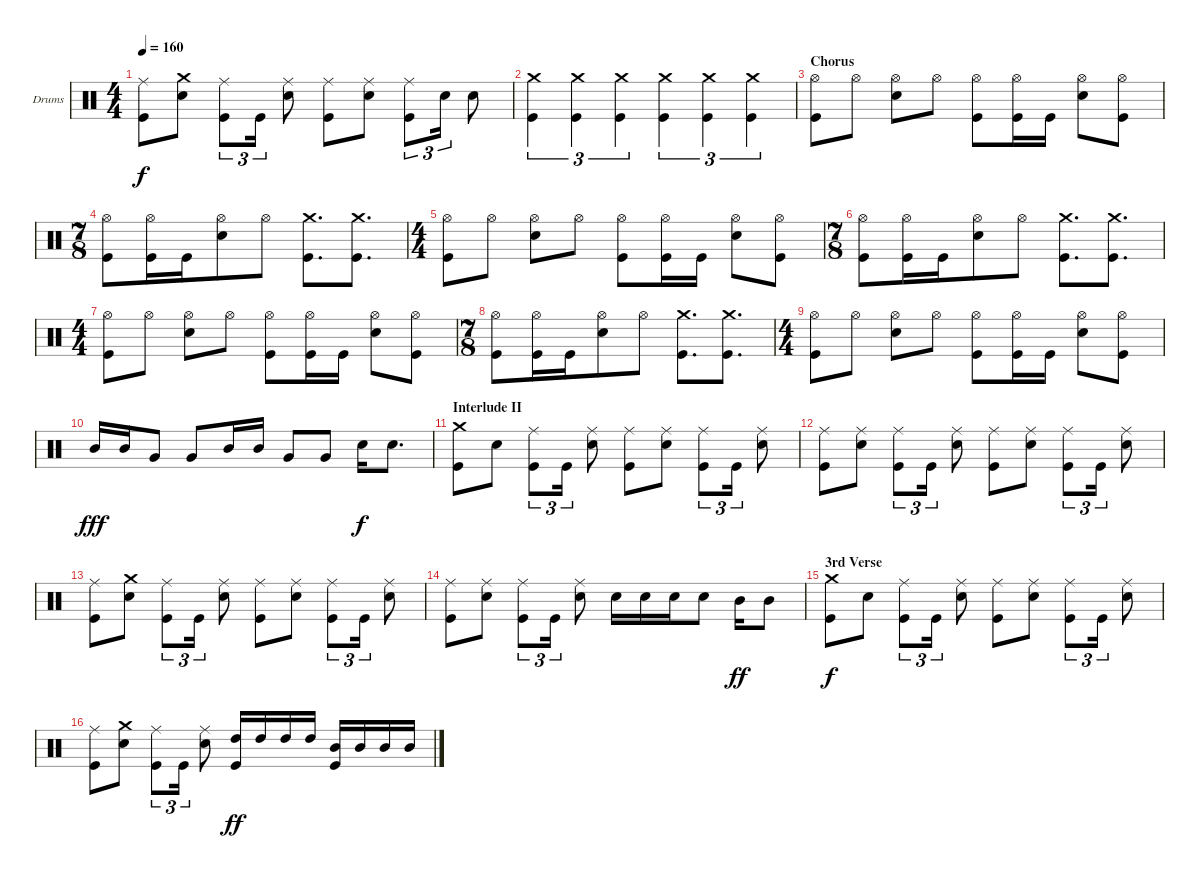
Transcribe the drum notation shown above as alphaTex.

\bracketExtendMode groupsimilarinstruments
\firstSystemTrackNameOrientation horizontal
\otherSystemsTrackNameOrientation horizontal
\track ("Drums" "Drums") {instrument percussion}
\staff {score}
\articulation defaults
\ts (4 4)
\tempo 160
\clef neutral
\ks c
("Ride (middle)" "Kick (hit)").8{dy f} ("Crash medium (hit)" "Snare (hit) 2").8 ("Kick (hit)" "Ride (middle)").8{tu (3 2)} "Kick (hit)".16{tu (3 2)} ("Ride (middle)" "Snare (hit) 2").8 ("Ride (middle)" "Kick (hit)").8 ("Ride (middle)" "Snare (hit) 2").8 ("Ride (middle)" "Kick (hit)").8{tu (3 2)} "Snare (hit) 2".16{tu (3 2)} "Snare (hit) 2".8 |
("Crash medium (hit)" "Kick (hit)").4{tu (3 2)} ("Crash medium (hit)" "Kick (hit)").4{tu (3 2)} ("Crash medium (hit)" "Kick (hit)").4{tu (3 2)} ("Crash medium (hit)" "Kick (hit)").4{tu (3 2)} ("Crash medium (hit)" "Kick (hit)").4{tu (3 2)} ("Crash medium (hit)" "Kick (hit)").4{tu (3 2)} |
\section ("" "Chorus")
("Hi-Hat (open)" "Kick (hit)").8 "Hi-Hat (open)".8 ("Hi-Hat (open)" "Snare (hit) 2").8 "Hi-Hat (open)".8 ("Hi-Hat (open)" "Kick (hit)").8 ("Hi-Hat (open)" "Kick (hit)").16 "Kick (hit)".16 ("Hi-Hat (open)" "Snare (hit) 2").8 ("Hi-Hat (open)" "Kick (hit)").8 |
\ts (7 8)
("Hi-Hat (open)" "Kick (hit)").8 ("Hi-Hat (open)" "Kick (hit)").16 "Kick (hit)".16 ("Hi-Hat (open)" "Snare (hit) 2").8 "Hi-Hat (open)".8 ("Crash medium (hit)" "Kick (hit)").8{d} ("Crash medium (hit)" "Kick (hit)").8{d} |
\ts (4 4)
("Hi-Hat (open)" "Kick (hit)").8 "Hi-Hat (open)".8 ("Hi-Hat (open)" "Snare (hit) 2").8 "Hi-Hat (open)".8 ("Hi-Hat (open)" "Kick (hit)").8 ("Hi-Hat (open)" "Kick (hit)").16 "Kick (hit)".16 ("Hi-Hat (open)" "Snare (hit) 2").8 ("Hi-Hat (open)" "Kick (hit)").8 |
\ts (7 8)
("Hi-Hat (open)" "Kick (hit)").8 ("Hi-Hat (open)" "Kick (hit)").16 "Kick (hit)".16 ("Hi-Hat (open)" "Snare (hit) 2").8 "Hi-Hat (open)".8 ("Crash medium (hit)" "Kick (hit)").8{d} ("Crash medium (hit)" "Kick (hit)").8{d} |
\ts (4 4)
("Hi-Hat (open)" "Kick (hit)").8 "Hi-Hat (open)".8 ("Hi-Hat (open)" "Snare (hit) 2").8 "Hi-Hat (open)".8 ("Hi-Hat (open)" "Kick (hit)").8 ("Hi-Hat (open)" "Kick (hit)").16 "Kick (hit)".16 ("Hi-Hat (open)" "Snare (hit) 2").8 ("Hi-Hat (open)" "Kick (hit)").8 |
\ts (7 8)
("Hi-Hat (open)" "Kick (hit)").8 ("Hi-Hat (open)" "Kick (hit)").16 "Kick (hit)".16 ("Hi-Hat (open)" "Snare (hit) 2").8 "Hi-Hat (open)".8 ("Crash medium (hit)" "Kick (hit)").8{d} ("Crash medium (hit)" "Kick (hit)").8{d} |
\ts (4 4)
("Hi-Hat (open)" "Kick (hit)").8 "Hi-Hat (open)".8 ("Hi-Hat (open)" "Snare (hit) 2").8 "Hi-Hat (open)".8 ("Hi-Hat (open)" "Kick (hit)").8 ("Hi-Hat (open)" "Kick (hit)").16 "Kick (hit)".16 ("Hi-Hat (open)" "Snare (hit) 2").8 ("Hi-Hat (open)" "Kick (hit)").8 |
"Mid Tom (hit)".16{dy fff} "Mid Tom (hit)".16 "Very Low Tom (hit)".8 "Very Low Tom (hit)".8 "Mid Tom (hit)".16 "Mid Tom (hit)".16 "Very Low Tom (hit)".8 "Very Low Tom (hit)".8 "Snare (hit) 2".16{dy f} "Snare (hit) 2".8{d} |
\section ("" "Interlude II")
("Kick (hit)" "Crash medium (hit)").8 "Snare (hit) 2".8 ("Kick (hit)" "Ride (middle)").8{tu (3 2)} "Kick (hit)".16{tu (3 2)} ("Ride (middle)" "Snare (hit) 2").8 ("Ride (middle)" "Kick (hit)").8 ("Ride (middle)" "Snare (hit) 2").8 ("Ride (middle)" "Kick (hit)").8{tu (3 2)} "Kick (hit)".16{tu (3 2)} ("Ride (middle)" "Snare (hit) 2").8 |
("Ride (middle)" "Kick (hit)").8 ("Ride (middle)" "Snare (hit) 2").8 ("Kick (hit)" "Ride (middle)").8{tu (3 2)} "Kick (hit)".16{tu (3 2)} ("Ride (middle)" "Snare (hit) 2").8 ("Ride (middle)" "Kick (hit)").8 ("Ride (middle)" "Snare (hit) 2").8 ("Kick (hit)" "Ride (middle)").8{tu (3 2)} "Kick (hit)".16{tu (3 2)} ("Ride (middle)" "Snare (hit) 2").8 |
("Ride (middle)" "Kick (hit)").8 ("Crash medium (hit)" "Snare (hit) 2").8 ("Kick (hit)" "Ride (middle)").8{tu (3 2)} "Kick (hit)".16{tu (3 2)} ("Ride (middle)" "Snare (hit) 2").8 ("Ride (middle)" "Kick (hit)").8 ("Ride (middle)" "Snare (hit) 2").8 ("Kick (hit)" "Ride (middle)").8{tu (3 2)} "Kick (hit)".16{tu (3 2)} ("Ride (middle)" "Snare (hit) 2").8 |
("Ride (middle)" "Kick (hit)").8 ("Ride (middle)" "Snare (hit) 2").8 ("Kick (hit)" "Ride (middle)").8{tu (3 2)} "Kick (hit)".16{tu (3 2)} ("Ride (middle)" "Snare (hit) 2").8 "Snare (hit) 2".16 "Snare (hit) 2".16 "Snare (hit) 2".16 "Snare (hit) 2".8 "Mid Tom (hit)".16{dy ff} "Mid Tom (hit)".8 |
\section ("" "3rd Verse")
("Crash medium (hit)" "Kick (hit)").8{dy f} "Snare (hit) 2".8 ("Kick (hit)" "Ride (middle)").8{tu (3 2)} "Kick (hit)".16{tu (3 2)} ("Ride (middle)" "Snare (hit) 2").8 ("Ride (middle)" "Kick (hit)").8 ("Ride (middle)" "Snare (hit) 2").8 ("Kick (hit)" "Ride (middle)").8{tu (3 2)} "Kick (hit)".16{tu (3 2)} ("Ride (middle)" "Snare (hit) 2").8 |
("Ride (middle)" "Kick (hit)").8 ("Crash medium (hit)" "Snare (hit) 2").8 ("Kick (hit)" "Ride (middle)").8{tu (3 2)} "Kick (hit)".16{tu (3 2)} ("Ride (middle)" "Snare (hit) 2").8 ("Kick (hit)" "High Tom (hit)").16{dy ff} "High Tom (hit)".16 "High Tom (hit)".16 "High Tom (hit)".16 ("Kick (hit)" "Mid Tom (hit)").16 "Mid Tom (hit)".16 "Mid Tom (hit)".16 "Mid Tom (hit)".16
